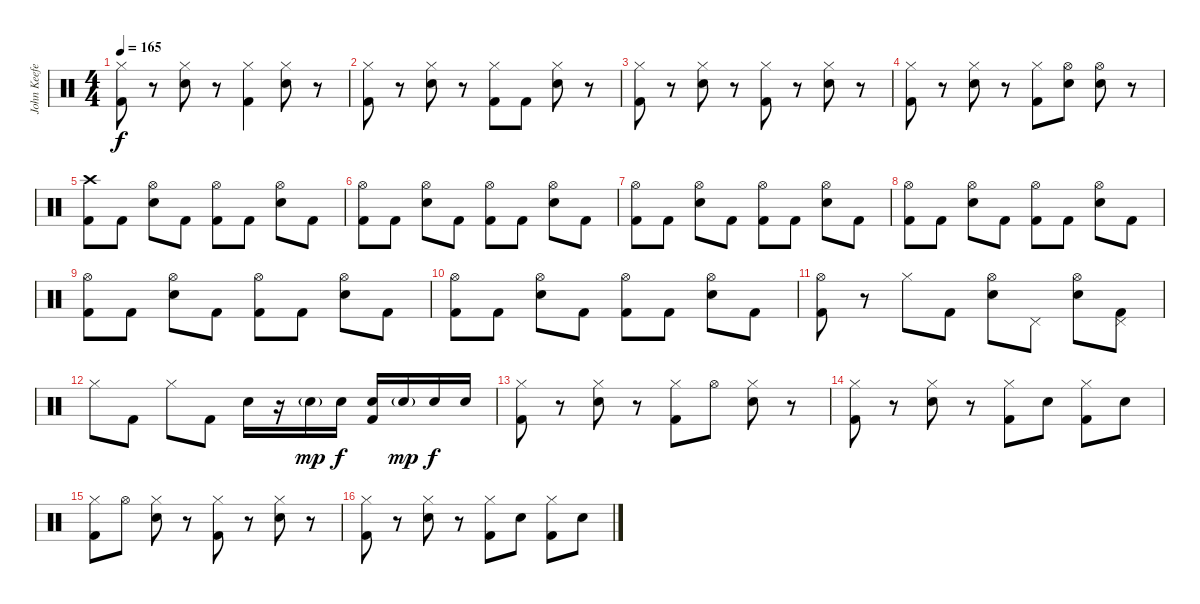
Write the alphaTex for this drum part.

\track ("John Keefe (Drums)" "John Keefe") {instrument percussion}
\staff {score}
\articulation defaults
\ts (4 4)
\tempo 165
\clef neutral
\ks c
("Hi-Hat (closed)" "Kick (hit) 2").8{dy f} r.8 ("Hi-Hat (closed)" "Electric Snare (hit)").8 r.8 ("Hi-Hat (closed)" "Kick (hit) 2").4 ("Hi-Hat (closed)" "Electric Snare (hit)").8 r.8 |
("Hi-Hat (closed)" "Kick (hit) 2").8 r.8 ("Hi-Hat (closed)" "Electric Snare (hit)").8 r.8 ("Hi-Hat (closed)" "Kick (hit) 2").8 "Kick (hit) 2".8 ("Hi-Hat (closed)" "Electric Snare (hit)").8 r.8 |
("Hi-Hat (closed)" "Kick (hit) 2").8 r.8 ("Hi-Hat (closed)" "Electric Snare (hit)").8 r.8 ("Hi-Hat (closed)" "Kick (hit) 2").8 r.8 ("Hi-Hat (closed)" "Electric Snare (hit)").8 r.8 |
("Hi-Hat (closed)" "Kick (hit) 2").8 r.8 ("Hi-Hat (closed)" "Electric Snare (hit)").8 r.8 ("Hi-Hat (closed)" "Kick (hit) 2").8 ("Hi-Hat (open)" "Electric Snare (hit)").8 ("Hi-Hat (open)" "Electric Snare (hit)").8 r.8 |
("Crash high (hit)" "Kick (hit) 2").8 "Kick (hit) 2".8 ("Hi-Hat (open)" "Electric Snare (hit)").8 "Kick (hit) 2".8 ("Hi-Hat (open)" "Kick (hit) 2").8 "Kick (hit) 2".8 ("Hi-Hat (open)" "Electric Snare (hit)").8 "Kick (hit) 2".8 |
("Hi-Hat (open)" "Kick (hit) 2").8 "Kick (hit) 2".8 ("Hi-Hat (open)" "Electric Snare (hit)").8 "Kick (hit) 2".8 ("Hi-Hat (open)" "Kick (hit) 2").8 "Kick (hit) 2".8 ("Hi-Hat (open)" "Electric Snare (hit)").8 "Kick (hit) 2".8 |
("Hi-Hat (open)" "Kick (hit) 2").8 "Kick (hit) 2".8 ("Hi-Hat (open)" "Electric Snare (hit)").8 "Kick (hit) 2".8 ("Hi-Hat (open)" "Kick (hit) 2").8 "Kick (hit) 2".8 ("Hi-Hat (open)" "Electric Snare (hit)").8 "Kick (hit) 2".8 |
("Hi-Hat (open)" "Kick (hit) 2").8 "Kick (hit) 2".8 ("Hi-Hat (open)" "Electric Snare (hit)").8 "Kick (hit) 2".8 ("Hi-Hat (open)" "Kick (hit) 2").8 "Kick (hit) 2".8 ("Hi-Hat (open)" "Electric Snare (hit)").8 "Kick (hit) 2".8 |
("Hi-Hat (open)" "Kick (hit) 2").8 "Kick (hit) 2".8 ("Hi-Hat (open)" "Electric Snare (hit)").8 "Kick (hit) 2".8 ("Hi-Hat (open)" "Kick (hit) 2").8 "Kick (hit) 2".8 ("Hi-Hat (open)" "Electric Snare (hit)").8 "Kick (hit) 2".8 |
("Hi-Hat (open)" "Kick (hit) 2").8 "Kick (hit) 2".8 ("Hi-Hat (open)" "Electric Snare (hit)").8 "Kick (hit) 2".8 ("Hi-Hat (open)" "Kick (hit) 2").8 "Kick (hit) 2".8 ("Hi-Hat (open)" "Electric Snare (hit)").8 "Kick (hit) 2".8 |
("Hi-Hat (open)" "Kick (hit) 2").8 r.8 "Hi-Hat (closed)".8 "Kick (hit) 2".8 ("Hi-Hat (open)" "Electric Snare (hit)").8 "Pedal Hi-Hat (hit)".8 ("Hi-Hat (open)" "Electric Snare (hit)").8 ("Pedal Hi-Hat (hit)" "Kick (hit) 2").8 |
"Hi-Hat (closed)".8 "Kick (hit) 2".8 "Hi-Hat (closed)".8 "Kick (hit) 2".8 "Electric Snare (hit)".16 r.16 "Electric Snare (hit)"{g}.16{dy mp} "Electric Snare (hit)".16{dy f} ("Electric Snare (hit)" "Kick (hit) 2").16 "Electric Snare (hit)"{g}.16{dy mp} "Electric Snare (hit)".16{dy f} "Electric Snare (hit)".16 |
("Hi-Hat (closed)" "Kick (hit) 2").8 r.8 ("Hi-Hat (closed)" "Electric Snare (hit)").8 r.8 ("Hi-Hat (closed)" "Kick (hit) 2").8 "Hi-Hat (open)".8 ("Hi-Hat (closed)" "Electric Snare (hit)").8 r.8 |
("Hi-Hat (closed)" "Kick (hit) 2").8 r.8 ("Hi-Hat (closed)" "Electric Snare (hit)").8 r.8 ("Hi-Hat (closed)" "Kick (hit) 2").8 "Electric Snare (hit)".8 ("Hi-Hat (closed)" "Kick (hit) 2").8 "Electric Snare (hit)".8 |
("Hi-Hat (closed)" "Kick (hit) 2").8 "Hi-Hat (open)".8 ("Hi-Hat (closed)" "Electric Snare (hit)").8 r.8 ("Hi-Hat (closed)" "Kick (hit) 2").8 r.8 ("Hi-Hat (closed)" "Electric Snare (hit)").8 r.8 |
("Hi-Hat (closed)" "Kick (hit) 2").8 r.8 ("Hi-Hat (closed)" "Electric Snare (hit)").8 r.8 ("Hi-Hat (closed)" "Kick (hit) 2").8 "Electric Snare (hit)".8 ("Hi-Hat (closed)" "Kick (hit) 2").8 "Electric Snare (hit)".8
